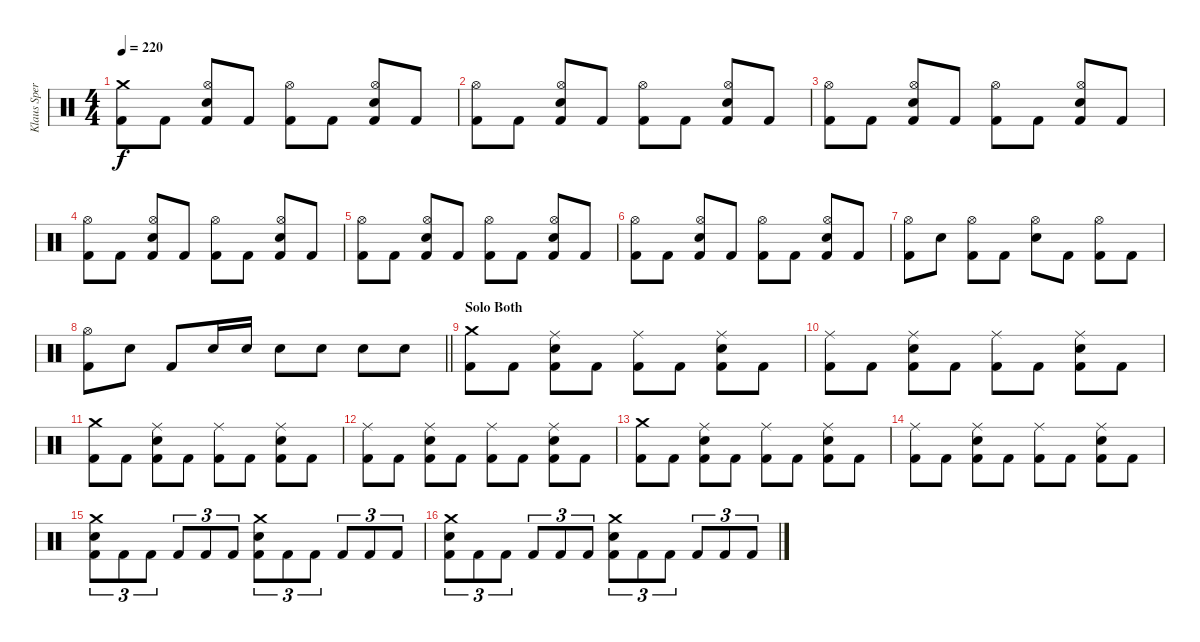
\track ("Klaus Sperling" "Klaus Sper") {instrument percussion}
\staff {score}
\articulation defaults
\ts (4 4)
\tempo 220
\clef neutral
\ks c
("Crash medium (hit)" "Kick (hit) 2").8{dy f} "Kick (hit) 2".8 ("Hi-Hat (open)" "Electric Snare (hit)" "Kick (hit) 2").8 "Kick (hit) 2".8 ("Hi-Hat (open)" "Kick (hit) 2").8 "Kick (hit) 2".8 ("Hi-Hat (open)" "Electric Snare (hit)" "Kick (hit) 2").8 "Kick (hit) 2".8 |
("Hi-Hat (open)" "Kick (hit) 2").8 "Kick (hit) 2".8 ("Hi-Hat (open)" "Electric Snare (hit)" "Kick (hit) 2").8 "Kick (hit) 2".8 ("Hi-Hat (open)" "Kick (hit) 2").8 "Kick (hit) 2".8 ("Hi-Hat (open)" "Electric Snare (hit)" "Kick (hit) 2").8 "Kick (hit) 2".8 |
("Hi-Hat (open)" "Kick (hit) 2").8 "Kick (hit) 2".8 ("Hi-Hat (open)" "Electric Snare (hit)" "Kick (hit) 2").8 "Kick (hit) 2".8 ("Hi-Hat (open)" "Kick (hit) 2").8 "Kick (hit) 2".8 ("Hi-Hat (open)" "Electric Snare (hit)" "Kick (hit) 2").8 "Kick (hit) 2".8 |
("Hi-Hat (open)" "Kick (hit) 2").8 "Kick (hit) 2".8 ("Hi-Hat (open)" "Electric Snare (hit)" "Kick (hit) 2").8 "Kick (hit) 2".8 ("Hi-Hat (open)" "Kick (hit) 2").8 "Kick (hit) 2".8 ("Hi-Hat (open)" "Electric Snare (hit)" "Kick (hit) 2").8 "Kick (hit) 2".8 |
("Hi-Hat (open)" "Kick (hit) 2").8 "Kick (hit) 2".8 ("Hi-Hat (open)" "Electric Snare (hit)" "Kick (hit) 2").8 "Kick (hit) 2".8 ("Hi-Hat (open)" "Kick (hit) 2").8 "Kick (hit) 2".8 ("Hi-Hat (open)" "Electric Snare (hit)" "Kick (hit) 2").8 "Kick (hit) 2".8 |
("Hi-Hat (open)" "Kick (hit) 2").8 "Kick (hit) 2".8 ("Hi-Hat (open)" "Electric Snare (hit)" "Kick (hit) 2").8 "Kick (hit) 2".8 ("Hi-Hat (open)" "Kick (hit) 2").8 "Kick (hit) 2".8 ("Hi-Hat (open)" "Electric Snare (hit)" "Kick (hit) 2").8 "Kick (hit) 2".8 |
("Hi-Hat (open)" "Kick (hit) 2").8 "Electric Snare (hit)".8 ("Hi-Hat (open)" "Kick (hit) 2").8 "Kick (hit) 2".8 ("Hi-Hat (open)" "Electric Snare (hit)").8 "Kick (hit) 2".8 ("Hi-Hat (open)" "Kick (hit) 2").8 "Kick (hit) 2".8 |
\barLineRight lightlight
("Hi-Hat (open)" "Kick (hit) 2").8 "Electric Snare (hit)".8 "Kick (hit) 2".8 "Electric Snare (hit)".16 "Electric Snare (hit)".16 "Electric Snare (hit)".8 "Electric Snare (hit)".8 "Electric Snare (hit)".8 "Electric Snare (hit)".8 |
\section ("" "Solo Both")
("Crash medium (hit)" "Kick (hit) 2").8 "Kick (hit) 2".8 ("Ride (middle)" "Electric Snare (hit)" "Kick (hit) 2").8 "Kick (hit) 2".8 ("Ride (middle)" "Kick (hit) 2").8 "Kick (hit) 2".8 ("Ride (middle)" "Electric Snare (hit)" "Kick (hit) 2").8 "Kick (hit) 2".8 |
("Ride (middle)" "Kick (hit) 2").8 "Kick (hit) 2".8 ("Ride (middle)" "Electric Snare (hit)" "Kick (hit) 2").8 "Kick (hit) 2".8 ("Ride (middle)" "Kick (hit) 2").8 "Kick (hit) 2".8 ("Ride (middle)" "Electric Snare (hit)" "Kick (hit) 2").8 "Kick (hit) 2".8 |
("Crash medium (hit)" "Kick (hit) 2").8 "Kick (hit) 2".8 ("Ride (middle)" "Electric Snare (hit)" "Kick (hit) 2").8 "Kick (hit) 2".8 ("Ride (middle)" "Kick (hit) 2").8 "Kick (hit) 2".8 ("Ride (middle)" "Electric Snare (hit)" "Kick (hit) 2").8 "Kick (hit) 2".8 |
("Ride (middle)" "Kick (hit) 2").8 "Kick (hit) 2".8 ("Ride (middle)" "Electric Snare (hit)" "Kick (hit) 2").8 "Kick (hit) 2".8 ("Ride (middle)" "Kick (hit) 2").8 "Kick (hit) 2".8 ("Ride (middle)" "Electric Snare (hit)" "Kick (hit) 2").8 "Kick (hit) 2".8 |
("Crash medium (hit)" "Kick (hit) 2").8 "Kick (hit) 2".8 ("Ride (middle)" "Electric Snare (hit)" "Kick (hit) 2").8 "Kick (hit) 2".8 ("Ride (middle)" "Kick (hit) 2").8 "Kick (hit) 2".8 ("Ride (middle)" "Electric Snare (hit)" "Kick (hit) 2").8 "Kick (hit) 2".8 |
("Ride (middle)" "Kick (hit) 2").8 "Kick (hit) 2".8 ("Ride (middle)" "Electric Snare (hit)" "Kick (hit) 2").8 "Kick (hit) 2".8 ("Ride (middle)" "Kick (hit) 2").8 "Kick (hit) 2".8 ("Ride (middle)" "Electric Snare (hit)" "Kick (hit) 2").8 "Kick (hit) 2".8 |
("Crash medium (hit)" "Electric Snare (hit)" "Kick (hit) 2").8{tu (3 2)} "Kick (hit) 2".8{tu (3 2)} "Kick (hit) 2".8{tu (3 2)} "Kick (hit) 2".8{tu (3 2)} "Kick (hit) 2".8{tu (3 2)} "Kick (hit) 2".8{tu (3 2)} ("Crash medium (hit)" "Electric Snare (hit)" "Kick (hit) 2").8{tu (3 2)} "Kick (hit) 2".8{tu (3 2)} "Kick (hit) 2".8{tu (3 2)} "Kick (hit) 2".8{tu (3 2)} "Kick (hit) 2".8{tu (3 2)} "Kick (hit) 2".8{tu (3 2)} |
("Crash medium (hit)" "Electric Snare (hit)" "Kick (hit) 2").8{tu (3 2)} "Kick (hit) 2".8{tu (3 2)} "Kick (hit) 2".8{tu (3 2)} "Kick (hit) 2".8{tu (3 2)} "Kick (hit) 2".8{tu (3 2)} "Kick (hit) 2".8{tu (3 2)} ("Crash medium (hit)" "Electric Snare (hit)" "Kick (hit) 2").8{tu (3 2)} "Kick (hit) 2".8{tu (3 2)} "Kick (hit) 2".8{tu (3 2)} "Kick (hit) 2".8{tu (3 2)} "Kick (hit) 2".8{tu (3 2)} "Kick (hit) 2".8{tu (3 2)}
